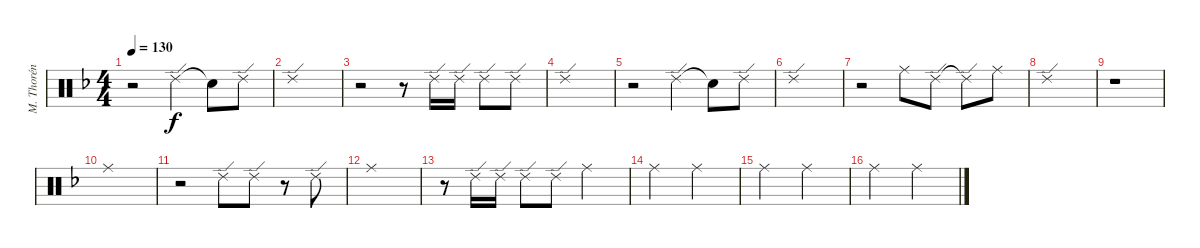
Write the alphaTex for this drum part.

\track ("M. Thorén (Drums)" "M. Thorén ") {instrument percussion}
\staff {score}
\articulation defaults
\ts (4 4)
\tempo 130
\clef neutral
\ks dminor
r.2{dy fff} "Ride (edge) 2".4{dy f} "Snare (hit)"{t}.8 "Ride (edge) 2".8 |
"Ride (edge) 2".1 |
r.2 r.8 "Ride (edge) 2".16 "Ride (edge) 2".16 "Ride (edge) 2".8 "Ride (edge) 2".8 |
"Ride (edge) 2".1 |
r.2 "Ride (edge) 2".4 "Snare (hit)"{t}.8 "Ride (edge) 2".8 |
"Ride (edge) 2".1 |
r.2 "Ride (middle)".8 "Ride (edge) 2".8 "Ride (edge) 2"{t}.8 "Ride (middle)".8 |
"Ride (edge) 2".1 |
r.1 |
"Ride (middle)".1 |
r.2 "Ride (edge) 2".8 "Ride (edge) 2".8 r.8 "Ride (edge) 2".8 |
"Ride (middle)".1 |
r.8 "Ride (edge) 2".16 "Ride (edge) 2".16 "Ride (edge) 2".8 "Ride (edge) 2".8 "Ride (middle)".2 |
"Ride (middle)".2 "Ride (middle)".2 |
"Ride (middle)".2 "Ride (middle)".2 |
"Ride (middle)".2 "Ride (middle)".2
